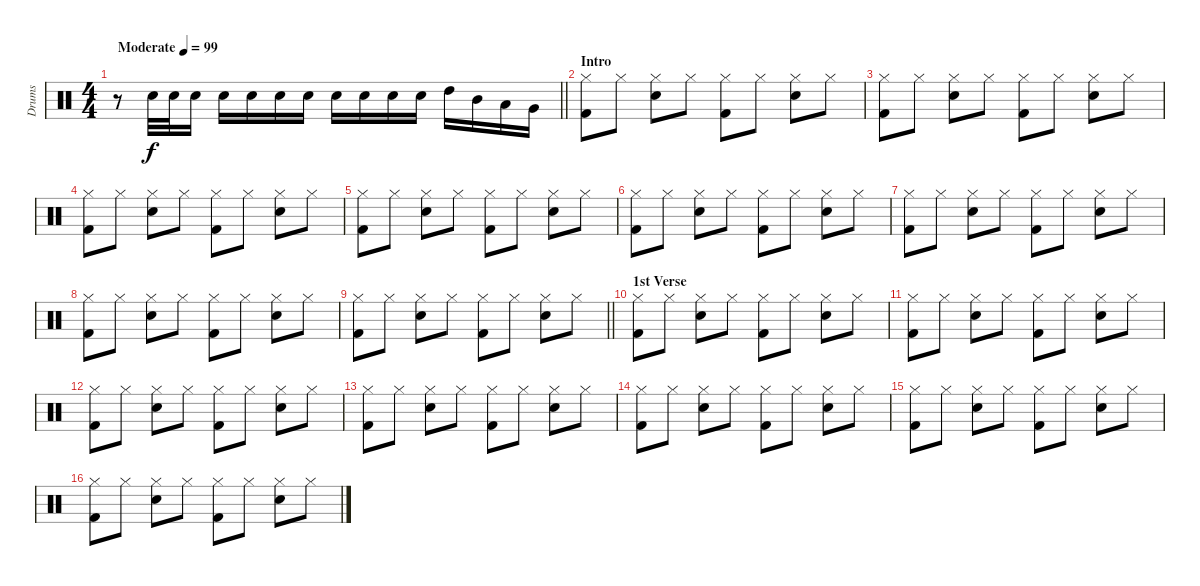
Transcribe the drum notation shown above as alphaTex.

\track ("Drums" "Drums") {instrument percussion}
\staff {score}
\articulation defaults
\ts (4 4)
\tempo (99 "Moderate")
\clef neutral
\barLineRight lightlight
\ks c
r.8{dy f} "Snare (hit) 2".32 "Snare (hit) 2".32 "Snare (hit) 2".16 "Snare (hit) 2".16 "Snare (hit) 2".16 "Snare (hit) 2".16 "Snare (hit) 2".16 "Snare (hit) 2".16 "Snare (hit) 2".16 "Snare (hit) 2".16 "Snare (hit) 2".16 "High Tom (hit)".16 "Mid Tom (hit)".16 "Low Tom (hit)".16 "Very Low Tom (hit)".16 |
\section ("" "Intro")
("Hi-Hat (closed)" "Kick (hit) 2").8 "Hi-Hat (closed)".8 ("Hi-Hat (closed)" "Snare (hit) 2").8 "Hi-Hat (closed)".8 ("Hi-Hat (closed)" "Kick (hit) 2").8 "Hi-Hat (closed)".8 ("Hi-Hat (closed)" "Snare (hit) 2").8 "Hi-Hat (closed)".8 |
("Hi-Hat (closed)" "Kick (hit) 2").8 "Hi-Hat (closed)".8 ("Hi-Hat (closed)" "Snare (hit) 2").8 "Hi-Hat (closed)".8 ("Hi-Hat (closed)" "Kick (hit) 2").8 "Hi-Hat (closed)".8 ("Hi-Hat (closed)" "Snare (hit) 2").8 "Hi-Hat (closed)".8 |
("Hi-Hat (closed)" "Kick (hit) 2").8 "Hi-Hat (closed)".8 ("Hi-Hat (closed)" "Snare (hit) 2").8 "Hi-Hat (closed)".8 ("Hi-Hat (closed)" "Kick (hit) 2").8 "Hi-Hat (closed)".8 ("Hi-Hat (closed)" "Snare (hit) 2").8 "Hi-Hat (closed)".8 |
("Hi-Hat (closed)" "Kick (hit) 2").8 "Hi-Hat (closed)".8 ("Hi-Hat (closed)" "Snare (hit) 2").8 "Hi-Hat (closed)".8 ("Hi-Hat (closed)" "Kick (hit) 2").8 "Hi-Hat (closed)".8 ("Hi-Hat (closed)" "Snare (hit) 2").8 "Hi-Hat (closed)".8 |
("Hi-Hat (closed)" "Kick (hit) 2").8 "Hi-Hat (closed)".8 ("Hi-Hat (closed)" "Snare (hit) 2").8 "Hi-Hat (closed)".8 ("Hi-Hat (closed)" "Kick (hit) 2").8 "Hi-Hat (closed)".8 ("Hi-Hat (closed)" "Snare (hit) 2").8 "Hi-Hat (closed)".8 |
("Hi-Hat (closed)" "Kick (hit) 2").8 "Hi-Hat (closed)".8 ("Hi-Hat (closed)" "Snare (hit) 2").8 "Hi-Hat (closed)".8 ("Hi-Hat (closed)" "Kick (hit) 2").8 "Hi-Hat (closed)".8 ("Hi-Hat (closed)" "Snare (hit) 2").8 "Hi-Hat (closed)".8 |
("Hi-Hat (closed)" "Kick (hit) 2").8 "Hi-Hat (closed)".8 ("Hi-Hat (closed)" "Snare (hit) 2").8 "Hi-Hat (closed)".8 ("Hi-Hat (closed)" "Kick (hit) 2").8 "Hi-Hat (closed)".8 ("Hi-Hat (closed)" "Snare (hit) 2").8 "Hi-Hat (closed)".8 |
\barLineRight lightlight
("Hi-Hat (closed)" "Kick (hit) 2").8 "Hi-Hat (closed)".8 ("Hi-Hat (closed)" "Snare (hit) 2").8 "Hi-Hat (closed)".8 ("Hi-Hat (closed)" "Kick (hit) 2").8 "Hi-Hat (closed)".8 ("Hi-Hat (closed)" "Snare (hit) 2").8 "Hi-Hat (closed)".8 |
\section ("" "1st Verse")
("Hi-Hat (closed)" "Kick (hit) 2").8 "Hi-Hat (closed)".8 ("Hi-Hat (closed)" "Snare (hit) 2").8 "Hi-Hat (closed)".8 ("Hi-Hat (closed)" "Kick (hit) 2").8 "Hi-Hat (closed)".8 ("Hi-Hat (closed)" "Snare (hit) 2").8 "Hi-Hat (closed)".8 |
("Hi-Hat (closed)" "Kick (hit) 2").8 "Hi-Hat (closed)".8 ("Hi-Hat (closed)" "Snare (hit) 2").8 "Hi-Hat (closed)".8 ("Hi-Hat (closed)" "Kick (hit) 2").8 "Hi-Hat (closed)".8 ("Hi-Hat (closed)" "Snare (hit) 2").8 "Hi-Hat (closed)".8 |
("Hi-Hat (closed)" "Kick (hit) 2").8 "Hi-Hat (closed)".8 ("Hi-Hat (closed)" "Snare (hit) 2").8 "Hi-Hat (closed)".8 ("Hi-Hat (closed)" "Kick (hit) 2").8 "Hi-Hat (closed)".8 ("Hi-Hat (closed)" "Snare (hit) 2").8 "Hi-Hat (closed)".8 |
("Hi-Hat (closed)" "Kick (hit) 2").8 "Hi-Hat (closed)".8 ("Hi-Hat (closed)" "Snare (hit) 2").8 "Hi-Hat (closed)".8 ("Hi-Hat (closed)" "Kick (hit) 2").8 "Hi-Hat (closed)".8 ("Hi-Hat (closed)" "Snare (hit) 2").8 "Hi-Hat (closed)".8 |
("Hi-Hat (closed)" "Kick (hit) 2").8 "Hi-Hat (closed)".8 ("Hi-Hat (closed)" "Snare (hit) 2").8 "Hi-Hat (closed)".8 ("Hi-Hat (closed)" "Kick (hit) 2").8 "Hi-Hat (closed)".8 ("Hi-Hat (closed)" "Snare (hit) 2").8 "Hi-Hat (closed)".8 |
("Hi-Hat (closed)" "Kick (hit) 2").8 "Hi-Hat (closed)".8 ("Hi-Hat (closed)" "Snare (hit) 2").8 "Hi-Hat (closed)".8 ("Hi-Hat (closed)" "Kick (hit) 2").8 "Hi-Hat (closed)".8 ("Hi-Hat (closed)" "Snare (hit) 2").8 "Hi-Hat (closed)".8 |
("Hi-Hat (closed)" "Kick (hit) 2").8 "Hi-Hat (closed)".8 ("Hi-Hat (closed)" "Snare (hit) 2").8 "Hi-Hat (closed)".8 ("Hi-Hat (closed)" "Kick (hit) 2").8 "Hi-Hat (closed)".8 ("Hi-Hat (closed)" "Snare (hit) 2").8 "Hi-Hat (closed)".8
